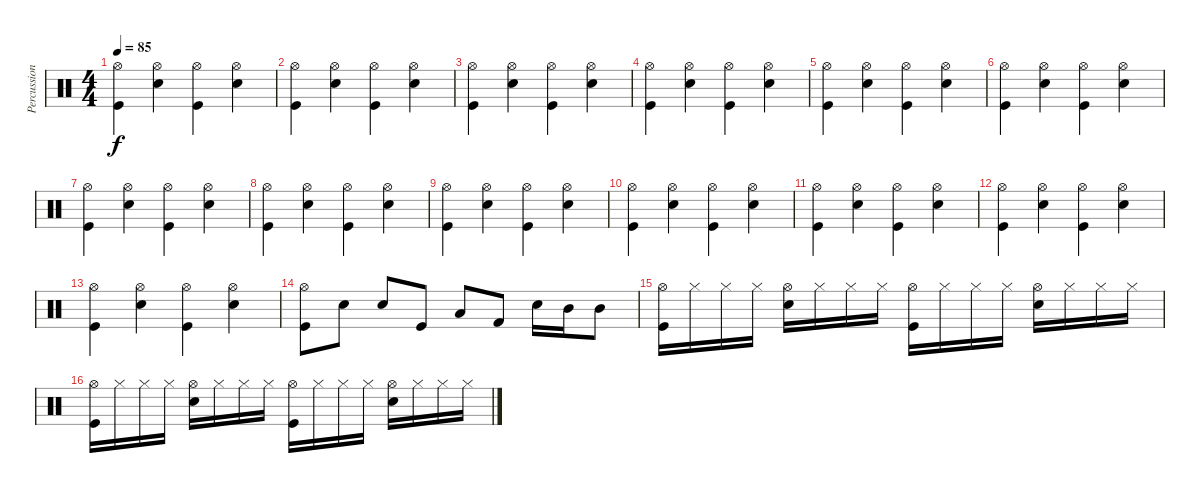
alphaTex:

\track ("Percussions" "Percussion") {instrument percussion}
\staff {score}
\articulation defaults
\ts (4 4)
\tempo 85
\clef neutral
\ks c
("Hi-Hat (open)" "Kick (hit)").4{dy f} ("Hi-Hat (open)" "Snare (hit) 2").4 ("Hi-Hat (open)" "Kick (hit)").4 ("Hi-Hat (open)" "Snare (hit) 2").4 |
("Hi-Hat (open)" "Kick (hit)").4 ("Hi-Hat (open)" "Snare (hit) 2").4 ("Hi-Hat (open)" "Kick (hit)").4 ("Hi-Hat (open)" "Snare (hit) 2").4 |
("Hi-Hat (open)" "Kick (hit)").4 ("Hi-Hat (open)" "Snare (hit) 2").4 ("Hi-Hat (open)" "Kick (hit)").4 ("Hi-Hat (open)" "Snare (hit) 2").4 |
("Hi-Hat (open)" "Kick (hit)").4 ("Hi-Hat (open)" "Snare (hit) 2").4 ("Hi-Hat (open)" "Kick (hit)").4 ("Hi-Hat (open)" "Snare (hit) 2").4 |
("Hi-Hat (open)" "Kick (hit)").4 ("Hi-Hat (open)" "Snare (hit) 2").4 ("Hi-Hat (open)" "Kick (hit)").4 ("Hi-Hat (open)" "Snare (hit) 2").4 |
("Hi-Hat (open)" "Kick (hit)").4 ("Hi-Hat (open)" "Snare (hit) 2").4 ("Hi-Hat (open)" "Kick (hit)").4 ("Hi-Hat (open)" "Snare (hit) 2").4 |
("Hi-Hat (open)" "Kick (hit)").4 ("Hi-Hat (open)" "Snare (hit) 2").4 ("Hi-Hat (open)" "Kick (hit)").4 ("Hi-Hat (open)" "Snare (hit) 2").4 |
("Hi-Hat (open)" "Kick (hit)").4 ("Hi-Hat (open)" "Snare (hit) 2").4 ("Hi-Hat (open)" "Kick (hit)").4 ("Hi-Hat (open)" "Snare (hit) 2").4 |
("Hi-Hat (open)" "Kick (hit)").4 ("Hi-Hat (open)" "Snare (hit) 2").4 ("Hi-Hat (open)" "Kick (hit)").4 ("Hi-Hat (open)" "Snare (hit) 2").4 |
("Hi-Hat (open)" "Kick (hit)").4 ("Hi-Hat (open)" "Snare (hit) 2").4 ("Hi-Hat (open)" "Kick (hit)").4 ("Hi-Hat (open)" "Snare (hit) 2").4 |
("Hi-Hat (open)" "Kick (hit)").4 ("Hi-Hat (open)" "Snare (hit) 2").4 ("Hi-Hat (open)" "Kick (hit)").4 ("Hi-Hat (open)" "Snare (hit) 2").4 |
("Hi-Hat (open)" "Kick (hit)").4 ("Hi-Hat (open)" "Snare (hit) 2").4 ("Hi-Hat (open)" "Kick (hit)").4 ("Hi-Hat (open)" "Snare (hit) 2").4 |
("Hi-Hat (open)" "Kick (hit)").4 ("Hi-Hat (open)" "Snare (hit) 2").4 ("Hi-Hat (open)" "Kick (hit)").4 ("Hi-Hat (open)" "Snare (hit) 2").4 |
("Hi-Hat (open)" "Kick (hit)").8 "Snare (hit) 2".8 "Snare (hit) 2".8 "Kick (hit)".8 "Low Tom (hit)".8 "Kick (hit) 2".8 "Snare (hit) 2".16 "Mid Tom (hit)".16 "Mid Tom (hit)".8 |
("Hi-Hat (open)" "Kick (hit)").16 "Hi-Hat (closed)".16 "Hi-Hat (closed)".16 "Hi-Hat (closed)".16 ("Hi-Hat (open)" "Snare (hit) 2").16 "Hi-Hat (closed)".16 "Hi-Hat (closed)".16 "Hi-Hat (closed)".16 ("Hi-Hat (open)" "Kick (hit)").16 "Hi-Hat (closed)".16 "Hi-Hat (closed)".16 "Hi-Hat (closed)".16 ("Hi-Hat (open)" "Snare (hit) 2").16 "Hi-Hat (closed)".16 "Hi-Hat (closed)".16 "Hi-Hat (closed)".16 |
("Hi-Hat (open)" "Kick (hit)").16 "Hi-Hat (closed)".16 "Hi-Hat (closed)".16 "Hi-Hat (closed)".16 ("Hi-Hat (open)" "Snare (hit) 2").16 "Hi-Hat (closed)".16 "Hi-Hat (closed)".16 "Hi-Hat (closed)".16 ("Hi-Hat (open)" "Kick (hit)").16 "Hi-Hat (closed)".16 "Hi-Hat (closed)".16 "Hi-Hat (closed)".16 ("Hi-Hat (open)" "Snare (hit) 2").16 "Hi-Hat (closed)".16 "Hi-Hat (closed)".16 "Hi-Hat (closed)".16
